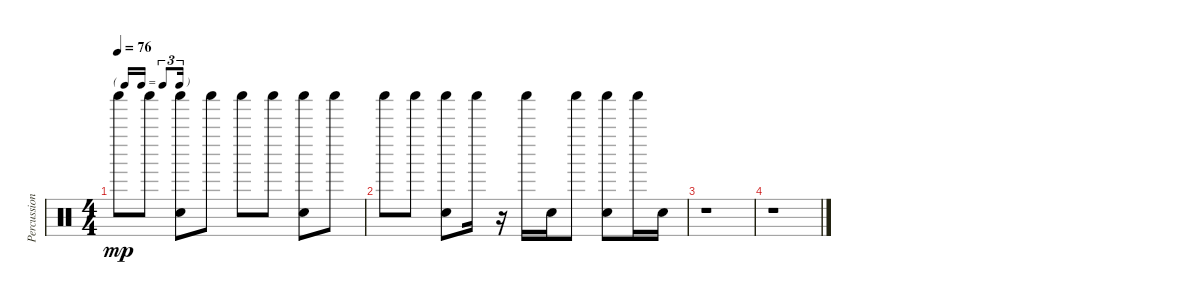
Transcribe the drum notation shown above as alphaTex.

\track ("Percussions" "Percussion") {instrument percussion}
\staff {score}
\articulation defaults
\ts (4 4)
\tf triplet16th
\tempo 76
\clef neutral
\ks c "Shaker (hit)".8{dy mp} "Shaker (hit)".8
("Shaker (hit)" "Snare (hit) 2").8 "Shaker (hit)".8 "Shaker (hit)".8 "Shaker (hit)".8 ("Shaker (hit)" "Snare (hit) 2").8 "Shaker (hit)".8 |
"Shaker (hit)".8 "Shaker (hit)".8 ("Shaker (hit)" "Snare (hit) 2").8 "Shaker (hit)".16 r.16 "Shaker (hit)".16 "Snare (hit) 2".16 "Shaker (hit)".8 ("Shaker (hit)" "Snare (hit) 2").8 "Shaker (hit)".16 "Snare (hit) 2".16 |
r.1 |
r.1
